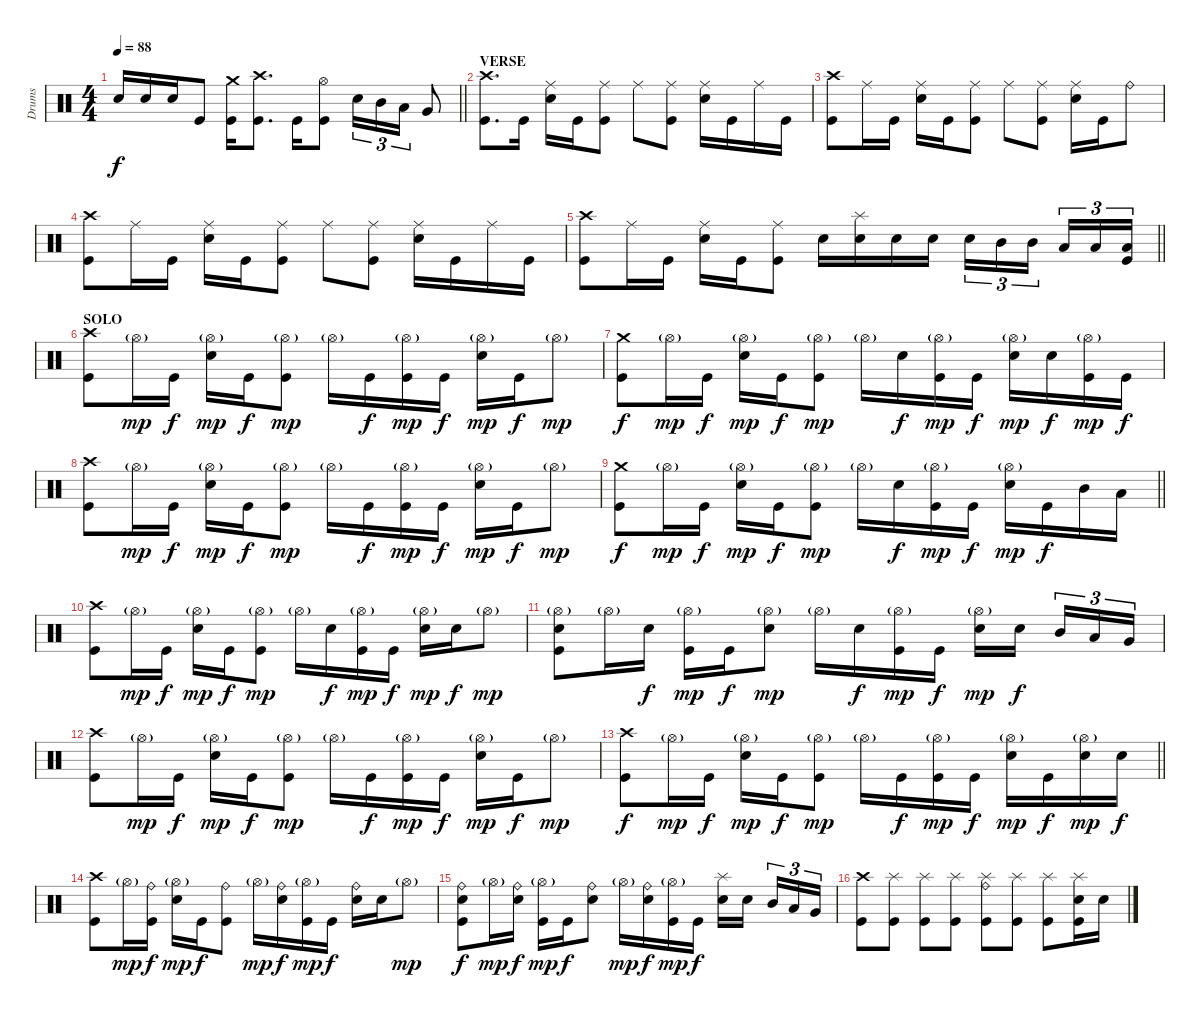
\track ("Drums" "Drums") {instrument percussion}
\staff
\articulation defaults
\ts (4 4)
\tempo 88
\clef neutral
\barLineRight lightlight
\ks c "Electric Snare (hit)".16{dy f} "Electric Snare (hit)".16 "Electric Snare (hit)".16 "Kick (hit)".8
("Crash medium (hit)" "Kick (hit)").16 ("Crash high (hit)" "Kick (hit)").8{d} "Kick (hit)".16 ("Hi-Hat (open)" "Kick (hit)").8 "Electric Snare (hit)".16{tu (3 2)} "Mid Tom (hit)".16{tu (3 2)} "Low Tom (hit)".16{tu (3 2)} "Very Low Tom (hit)".8 |
\section ("" "VERSE")
("Crash high (hit)" "Kick (hit)").8{d} "Kick (hit)".16 ("Ride (middle)" "Electric Snare (hit)").16 "Kick (hit)".16 ("Ride (middle)" "Kick (hit)").8 "Ride (middle)".8 ("Ride (middle)" "Kick (hit)").8 ("Ride (middle)" "Electric Snare (hit)").16 "Kick (hit)".16 "Ride (middle)".16 "Kick (hit)".16 |
("Crash high (hit)" "Kick (hit)").8 "Ride (middle)".16 "Kick (hit)".16 ("Ride (middle)" "Electric Snare (hit)").16 "Kick (hit)".16 ("Ride (middle)" "Kick (hit)").8 "Ride (middle)".8 ("Ride (middle)" "Kick (hit)").8 ("Ride (middle)" "Electric Snare (hit)").16 "Kick (hit)".16 "Ride (bell)".8 |
("Crash high (hit)" "Kick (hit)").8 "Ride (middle)".16 "Kick (hit)".16 ("Ride (middle)" "Electric Snare (hit)").16 "Kick (hit)".16 ("Ride (middle)" "Kick (hit)").8 "Ride (middle)".8 ("Ride (middle)" "Kick (hit)").8 ("Ride (middle)" "Electric Snare (hit)").16 "Kick (hit)".16 "Ride (middle)".16 "Kick (hit)".16 |
\barLineRight lightlight
("Crash high (hit)" "Kick (hit)").8 "Ride (middle)".16 "Kick (hit)".16 ("Ride (middle)" "Electric Snare (hit)").16 "Kick (hit)".16 ("Ride (middle)" "Kick (hit)").8 "Electric Snare (hit)".16 ("Splash (hit)" "Electric Snare (hit)").16 "Electric Snare (hit)".16 "Electric Snare (hit)".16 "Electric Snare (hit)".16{tu (3 2)} "Mid Tom (hit)".16{tu (3 2)} "Mid Tom (hit)".16{tu (3 2) beam splitsecondary} "Low Tom (hit)".16{tu (3 2)} "Low Tom (hit)".16{tu (3 2)} ("Low Floor Tom (hit)" "Kick (hit)").16{tu (3 2)} |
\section ("" "SOLO")
("Crash high (hit)" "Kick (hit)").8 "Hi-Hat (open)"{g}.16{dy mp} "Kick (hit)".16{dy f} ("Hi-Hat (open)"{g} "Electric Snare (hit)").16{dy mp} "Kick (hit)".16{dy f} ("Hi-Hat (open)"{g} "Kick (hit)").8{dy mp} "Hi-Hat (open)"{g}.16 "Kick (hit)".16{dy f} ("Hi-Hat (open)"{g} "Kick (hit)").16{dy mp} "Kick (hit)".16{dy f} ("Hi-Hat (open)"{g} "Electric Snare (hit)").16{dy mp} "Kick (hit)".16{dy f} "Hi-Hat (open)"{g}.8{dy mp} |
("Crash medium (hit)" "Kick (hit)").8{dy f} "Hi-Hat (open)"{g}.16{dy mp} "Kick (hit)".16{dy f} ("Hi-Hat (open)"{g} "Electric Snare (hit)").16{dy mp} "Kick (hit)".16{dy f} ("Hi-Hat (open)"{g} "Kick (hit)").8{dy mp} "Hi-Hat (open)"{g}.16 "Electric Snare (hit)".16{dy f} ("Hi-Hat (open)"{g} "Kick (hit)").16{dy mp} "Kick (hit)".16{dy f} ("Hi-Hat (open)"{g} "Electric Snare (hit)").16{dy mp} "Electric Snare (hit)".16{dy f} ("Hi-Hat (open)"{g} "Kick (hit)").16{dy mp} "Kick (hit)".16{dy f} |
("Crash high (hit)" "Kick (hit)").8 "Hi-Hat (open)"{g}.16{dy mp} "Kick (hit)".16{dy f} ("Hi-Hat (open)"{g} "Electric Snare (hit)").16{dy mp} "Kick (hit)".16{dy f} ("Hi-Hat (open)"{g} "Kick (hit)").8{dy mp} "Hi-Hat (open)"{g}.16 "Kick (hit)".16{dy f} ("Hi-Hat (open)"{g} "Kick (hit)").16{dy mp} "Kick (hit)".16{dy f} ("Hi-Hat (open)"{g} "Electric Snare (hit)").16{dy mp} "Kick (hit)".16{dy f} "Hi-Hat (open)"{g}.8{dy mp} |
\barLineRight lightlight
("Crash medium (hit)" "Kick (hit)").8{dy f} "Hi-Hat (open)"{g}.16{dy mp} "Kick (hit)".16{dy f} ("Hi-Hat (open)"{g} "Electric Snare (hit)").16{dy mp} "Kick (hit)".16{dy f} ("Hi-Hat (open)"{g} "Kick (hit)").8{dy mp} "Hi-Hat (open)"{g}.16 "Electric Snare (hit)".16{dy f} ("Hi-Hat (open)"{g} "Kick (hit)").16{dy mp} "Kick (hit)".16{dy f} ("Hi-Hat (open)"{g} "Electric Snare (hit)").16{dy mp} "Kick (hit)".16{dy f} "Mid Tom (hit)".16 "Low Tom (hit)".16 |
("Crash high (hit)" "Kick (hit)").8 "Hi-Hat (open)"{g}.16{dy mp} "Kick (hit)".16{dy f} ("Hi-Hat (open)"{g} "Electric Snare (hit)").16{dy mp} "Kick (hit)".16{dy f} ("Hi-Hat (open)"{g} "Kick (hit)").8{dy mp} "Hi-Hat (open)"{g}.16 "Electric Snare (hit)".16{dy f} ("Hi-Hat (open)"{g} "Kick (hit)").16{dy mp} "Kick (hit)".16{dy f} ("Hi-Hat (open)"{g} "Electric Snare (hit)").16{dy mp} "Electric Snare (hit)".16{dy f} "Hi-Hat (open)"{g}.8{dy mp} |
("Hi-Hat (open)"{g} "Electric Snare (hit)" "Kick (hit)").8 "Hi-Hat (open)"{g}.16 "Electric Snare (hit)".16{dy f} ("Hi-Hat (open)"{g} "Kick (hit)").16{dy mp} "Kick (hit)".16{dy f} ("Hi-Hat (open)"{g} "Electric Snare (hit)").8{dy mp} "Hi-Hat (open)"{g}.16 "Electric Snare (hit)".16{dy f} ("Hi-Hat (open)"{g} "Kick (hit)").16{dy mp} "Kick (hit)".16{dy f} ("Hi-Hat (open)"{g} "Electric Snare (hit)").16{dy mp} "Electric Snare (hit)".16{dy f beam splitsecondary} "Mid Tom (hit)".16{tu (3 2)} "Low Tom (hit)".16{tu (3 2)} "Very Low Tom (hit)".16{tu (3 2)} |
("Crash high (hit)" "Kick (hit)").8 "Hi-Hat (open)"{g}.16{dy mp} "Kick (hit)".16{dy f} ("Hi-Hat (open)"{g} "Electric Snare (hit)").16{dy mp} "Kick (hit)".16{dy f} ("Hi-Hat (open)"{g} "Kick (hit)").8{dy mp} "Hi-Hat (open)"{g}.16 "Kick (hit)".16{dy f} ("Hi-Hat (open)"{g} "Kick (hit)").16{dy mp} "Kick (hit)".16{dy f} ("Hi-Hat (open)"{g} "Electric Snare (hit)").16{dy mp} "Kick (hit)".16{dy f} "Hi-Hat (open)"{g}.8{dy mp} |
\barLineRight lightlight
("Crash high (hit)" "Kick (hit)").8{dy f} "Hi-Hat (open)"{g}.16{dy mp} "Kick (hit)".16{dy f} ("Hi-Hat (open)"{g} "Electric Snare (hit)").16{dy mp} "Kick (hit)".16{dy f} ("Hi-Hat (open)"{g} "Kick (hit)").8{dy mp} "Hi-Hat (open)"{g}.16 "Kick (hit)".16{dy f} ("Hi-Hat (open)"{g} "Kick (hit)").16{dy mp} "Kick (hit)".16{dy f} ("Hi-Hat (open)"{g} "Electric Snare (hit)").16{dy mp} "Kick (hit)".16{dy f} ("Hi-Hat (open)"{g} "Electric Snare (hit)").16{dy mp} "Electric Snare (hit)".16{dy f} |
("Crash high (hit)" "Kick (hit)").8 "Hi-Hat (open)"{g}.16{dy mp} ("Ride (bell)" "Kick (hit)").16{dy f} ("Hi-Hat (open)"{g} "Electric Snare (hit)").16{dy mp} "Kick (hit)".16{dy f} ("Ride (bell)" "Kick (hit)").8 "Hi-Hat (open)"{g}.16{dy mp} ("Ride (bell)" "Electric Snare (hit)").16{dy f} ("Hi-Hat (open)"{g} "Kick (hit)").16{dy mp} "Kick (hit)".16{dy f} ("Ride (bell)" "Electric Snare (hit)").16 "Electric Snare (hit)".16 "Hi-Hat (open)"{g}.8{dy mp} |
("Ride (bell)" "Electric Snare (hit)" "Kick (hit)").8{dy f} "Hi-Hat (open)"{g}.16{dy mp} ("Ride (bell)" "Electric Snare (hit)").16{dy f} ("Hi-Hat (open)"{g} "Kick (hit)").16{dy mp} "Kick (hit)".16{dy f} ("Ride (bell)" "Electric Snare (hit)").8 "Hi-Hat (open)"{g}.16{dy mp} ("Ride (bell)" "Electric Snare (hit)").16{dy f} ("Hi-Hat (open)"{g} "Kick (hit)").16{dy mp} "Kick (hit)".16{dy f} ("Splash (hit)" "Electric Snare (hit)").16 "Electric Snare (hit)".16{beam splitsecondary} "Mid Tom (hit)".16{tu (3 2)} "Low Tom (hit)".16{tu (3 2)} "Very Low Tom (hit)".16{tu (3 2)} |
("Crash high (hit)" "Kick (hit)").8 ("Splash (hit)" "Kick (hit)").8 ("Splash (hit)" "Kick (hit)").8 ("Splash (hit)" "Kick (hit)").8 ("Splash (hit)" "Ride (bell)" "Kick (hit)").8 ("Splash (hit)" "Kick (hit)").8 ("Splash (hit)" "Kick (hit)").8 ("Splash (hit)" "Electric Snare (hit)" "Kick (hit)").16 "Electric Snare (hit)".16
